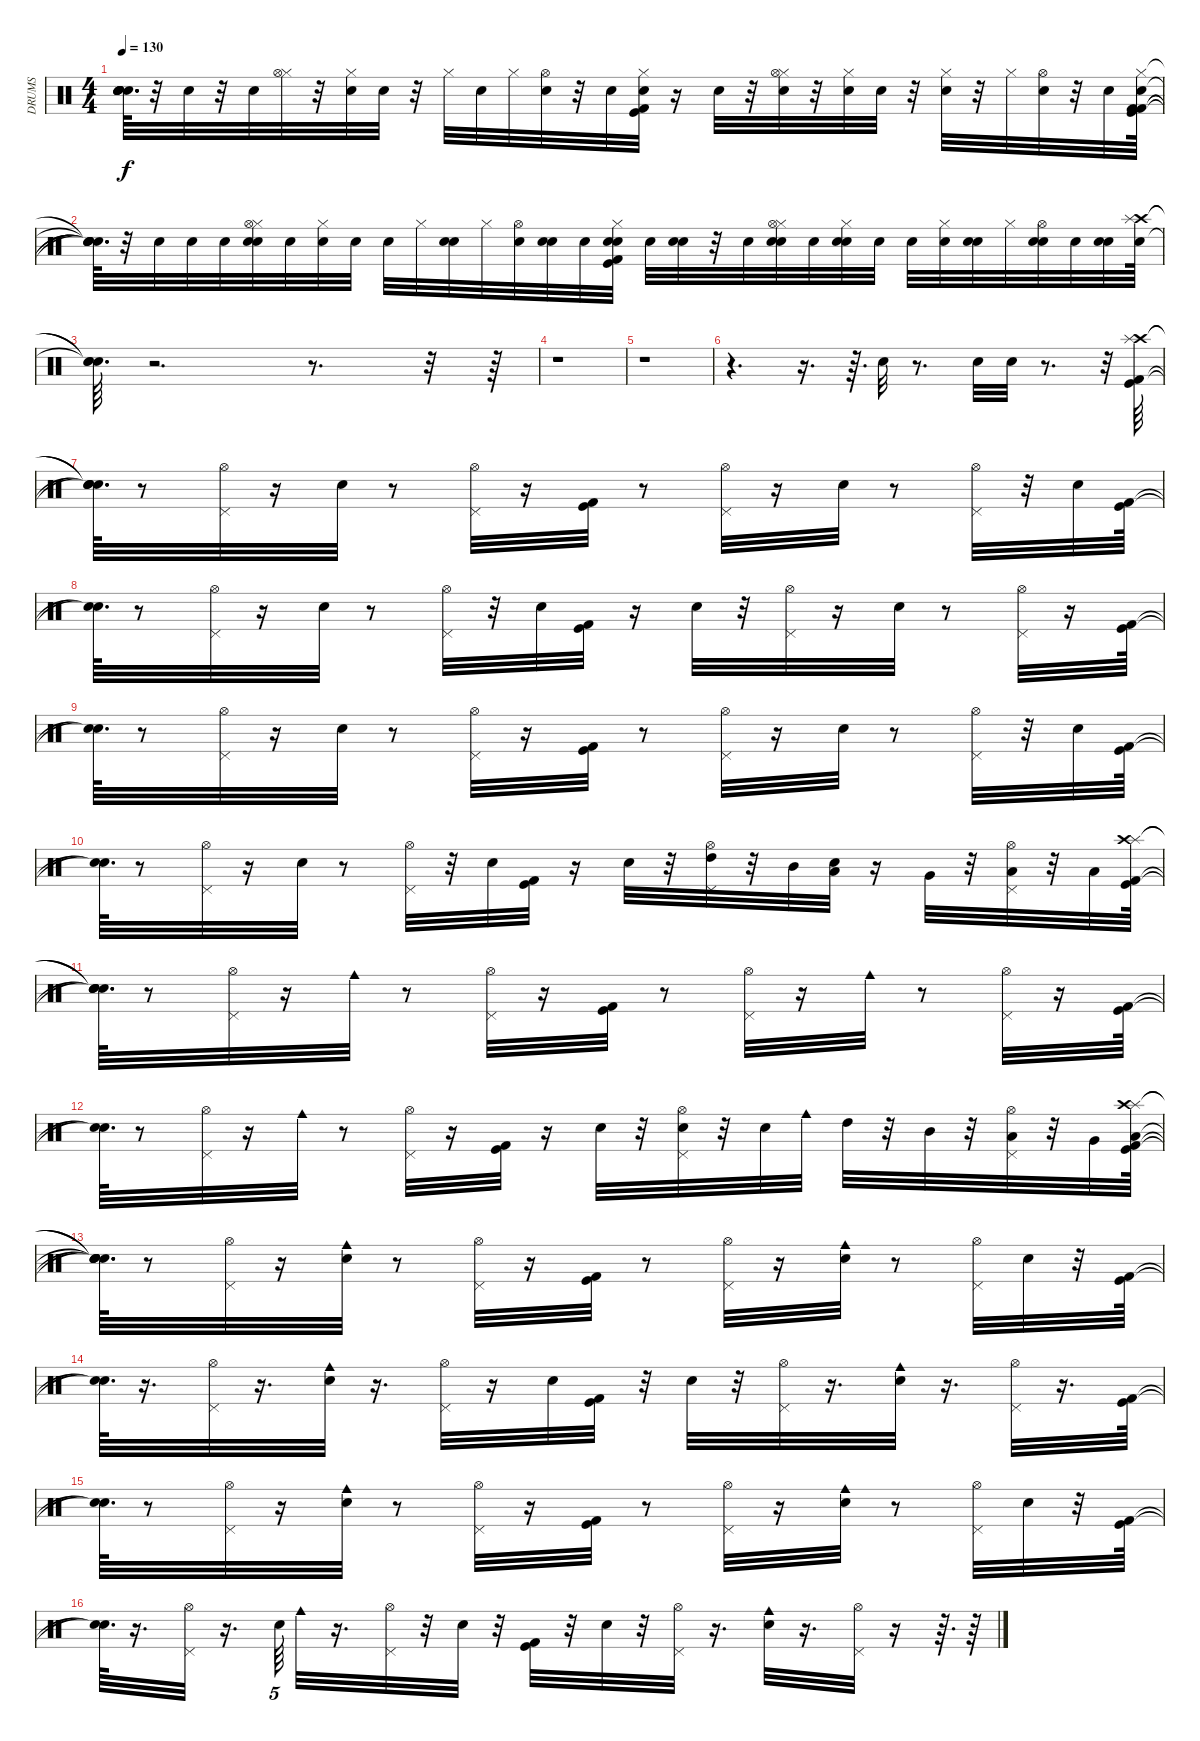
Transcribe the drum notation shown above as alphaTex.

\track ("DRUMS" "DRUMS") {instrument percussion}
\staff {score}
\articulation defaults
\ts (4 4)
\tempo 130
\clef neutral
\ks c
("Snare (hit)"{t} "Snare (hit)"{t} "Snare (hit)"{t} "Snare (hit)"{t} "Snare (hit)"{t} "Snare (hit)"{t}).64{d dy f} r.32 "Snare (hit) 2".32 r.32 "Snare (hit) 2".32 ("Hi-Hat (closed)" "Hi-Hat (open)").32 r.32 ("Snare (hit) 2" "Hi-Hat (closed)").32 "Snare (hit) 2".32 r.32 "Hi-Hat (closed)".32 "Snare (hit) 2".32 "Hi-Hat (closed)".32 ("Hi-Hat (open)" "Snare (hit) 2").32 r.32 "Snare (hit) 2".32 ("Kick (hit) 2" "Kick (hit)" "Hi-Hat (closed)" "Snare (hit) 2").32 r.16 "Snare (hit) 2".32 r.32 ("Hi-Hat (closed)" "Hi-Hat (open)" "Snare (hit) 2").32 r.32 ("Hi-Hat (closed)" "Snare (hit) 2").32 "Snare (hit) 2".32 r.32 ("Hi-Hat (closed)" "Snare (hit) 2").32 r.32 "Hi-Hat (closed)".32 ("Hi-Hat (open)" "Snare (hit) 2").32 r.32 "Snare (hit) 2".32 ("Kick (hit) 2" "Kick (hit)" "Kick (hit) 2" "Hi-Hat (closed)" "Snare (hit) 2").64 |
("Snare (hit)"{t} "Snare (hit)"{t} "Snare (hit)"{t} "Snare (hit)"{t} "Snare (hit)"{t}).64{d} r.32 "Snare (hit) 2".32 "Snare (hit) 2".32 "Snare (hit) 2".32 ("Hi-Hat (closed)" "Hi-Hat (open)" "Snare (hit) 2" "Snare (hit) 2").32 "Snare (hit) 2".32 ("Hi-Hat (closed)" "Snare (hit) 2").32 "Snare (hit) 2".32 "Snare (hit) 2".32 "Hi-Hat (closed)".32 ("Snare (hit) 2" "Snare (hit) 2").32 "Hi-Hat (closed)".32 ("Hi-Hat (open)" "Snare (hit) 2").32 ("Snare (hit) 2" "Snare (hit) 2").32 "Snare (hit) 2".32 ("Kick (hit) 2" "Kick (hit)" "Hi-Hat (closed)" "Electric Snare (hit)" "Snare (hit) 2").32 "Snare (hit) 2".32 ("Electric Snare (hit)" "Snare (hit) 2").32 r.32 "Snare (hit) 2".32 ("Hi-Hat (closed)" "Hi-Hat (open)" "Snare (hit) 2" "Snare (hit) 2").32 "Snare (hit) 2".32 ("Hi-Hat (closed)" "Electric Snare (hit)" "Snare (hit) 2").32 "Snare (hit) 2".32 "Snare (hit) 2".32 ("Hi-Hat (closed)" "Electric Snare (hit)").32 ("Snare (hit) 2" "Snare (hit) 2").32 "Hi-Hat (closed)".32 ("Electric Snare (hit)" "Hi-Hat (open)" "Snare (hit) 2").32 "Snare (hit) 2".32 ("Snare (hit) 2" "Snare (hit) 2").32 ("Crash high (hit)" "Splash (hit)" "Snare (hit) 2").64 |
("Snare (hit)"{t} "Snare (hit)"{t} "Snare (hit)"{t}).64{d} r.2{d} r.8{d} r.32 r.64 |
r.1 |
r.1 |
r.4{d} r.16{d} r.64{d} "Snare (hit) 2".32 r.8{d} "Snare (hit) 2".32 "Snare (hit) 2".32 r.8{d} r.32 ("Crash high (hit)" "Kick (hit)" "Kick (hit) 2" "Splash (hit)").64 |
("Snare (hit)"{t} "Snare (hit)"{t} "Snare (hit)"{t} "Snare (hit)"{t}).64{d} r.8 ("Pedal Hi-Hat (hit)" "Hi-Hat (open)").32 r.16 "Electric Snare (hit)".32 r.8 ("Pedal Hi-Hat (hit)" "Hi-Hat (open)").32 r.16 ("Kick (hit) 2" "Kick (hit)").32 r.8 ("Pedal Hi-Hat (hit)" "Hi-Hat (open)").32 r.16 "Electric Snare (hit)".32 r.8 ("Pedal Hi-Hat (hit)" "Hi-Hat (open)").32 r.32 "Electric Snare (hit)".32 ("Kick (hit)" "Kick (hit) 2").64 |
("Snare (hit)"{t} "Snare (hit)"{t}).64{d} r.8 ("Pedal Hi-Hat (hit)" "Hi-Hat (open)").32 r.16 "Electric Snare (hit)".32 r.8 ("Pedal Hi-Hat (hit)" "Hi-Hat (open)").32 r.32 "Electric Snare (hit)".32 ("Kick (hit) 2" "Kick (hit)").32 r.16 "Electric Snare (hit)".32 r.32 ("Pedal Hi-Hat (hit)" "Hi-Hat (open)").32 r.16 "Electric Snare (hit)".32 r.8 ("Pedal Hi-Hat (hit)" "Hi-Hat (open)").32 r.16 ("Kick (hit)" "Kick (hit) 2").64 |
("Snare (hit)"{t} "Snare (hit)"{t}).64{d} r.8 ("Pedal Hi-Hat (hit)" "Hi-Hat (open)").32 r.16 "Electric Snare (hit)".32 r.8 ("Pedal Hi-Hat (hit)" "Hi-Hat (open)").32 r.16 ("Kick (hit) 2" "Kick (hit)").32 r.8 ("Pedal Hi-Hat (hit)" "Hi-Hat (open)").32 r.16 "Electric Snare (hit)".32 r.8 ("Pedal Hi-Hat (hit)" "Hi-Hat (open)").32 r.32 "Electric Snare (hit)".32 ("Kick (hit)" "Kick (hit) 2").64 |
("Snare (hit)"{t} "Snare (hit)"{t}).64{d} r.8 ("Pedal Hi-Hat (hit)" "Hi-Hat (open)").32 r.16 "Electric Snare (hit)".32 r.8 ("Pedal Hi-Hat (hit)" "Hi-Hat (open)").32 r.32 "Electric Snare (hit)".32 ("Kick (hit) 2" "Kick (hit)").32 r.16 "Electric Snare (hit)".32 r.32 ("Pedal Hi-Hat (hit)" "Hi-Hat (open)" "High Tom (hit)").32 r.32 "Mid Tom (hit)".32 ("Electric Snare (hit)" "Low Tom (hit)").32 r.16 "Very Low Tom (hit)".32 r.32 ("Pedal Hi-Hat (hit)" "Hi-Hat (open)" "Low Floor Tom (hit)").32 r.32 "Low Floor Tom (hit)".32 ("Splash (hit)" "Kick (hit)" "Kick (hit) 2" "Crash high (hit)").64 |
("Snare (hit)"{t} "Snare (hit)"{t} "Snare (hit)"{t} "Snare (hit)"{t}).64{d} r.8 ("Pedal Hi-Hat (hit)" "Hi-Hat (open)").32 r.16 "Cowbell medium (hit)".32 r.8 ("Pedal Hi-Hat (hit)" "Hi-Hat (open)").32 r.16 ("Kick (hit) 2" "Kick (hit)").32 r.8 ("Pedal Hi-Hat (hit)" "Hi-Hat (open)").32 r.16 "Cowbell medium (hit)".32 r.8 ("Pedal Hi-Hat (hit)" "Hi-Hat (open)").32 r.16 ("Kick (hit)" "Kick (hit) 2").64 |
("Snare (hit)"{t} "Snare (hit)"{t}).64{d} r.8 ("Pedal Hi-Hat (hit)" "Hi-Hat (open)").32 r.16 "Cowbell medium (hit)".32 r.8 ("Pedal Hi-Hat (hit)" "Hi-Hat (open)").32 r.16 ("Kick (hit) 2" "Kick (hit)").32 r.16 "Electric Snare (hit)".32 r.32 ("Pedal Hi-Hat (hit)" "Hi-Hat (open)" "Electric Snare (hit)").32 r.32 "Electric Snare (hit)".32 "Cowbell medium (hit)".32 "High Tom (hit)".32 r.32 "Mid Tom (hit)".32 r.32 ("Low Tom (hit)" "Pedal Hi-Hat (hit)" "Hi-Hat (open)").32 r.32 "Very Low Tom (hit)".32 ("Low Floor Tom (hit)" "Kick (hit)" "Kick (hit) 2" "Splash (hit)" "Crash high (hit)").64 |
("Snare (hit)"{t} "Snare (hit)"{t} "Snare (hit)"{t} "Snare (hit)"{t} "Snare (hit)"{t}).64{d} r.8 ("Pedal Hi-Hat (hit)" "Hi-Hat (open)").32 r.16 ("Electric Snare (hit)" "Cowbell medium (hit)").32 r.8 ("Pedal Hi-Hat (hit)" "Hi-Hat (open)").32 r.16 ("Kick (hit) 2" "Kick (hit)").32 r.8 ("Pedal Hi-Hat (hit)" "Hi-Hat (open)").32 r.16 ("Electric Snare (hit)" "Cowbell medium (hit)").32 r.8 ("Pedal Hi-Hat (hit)" "Hi-Hat (open)").32 "Electric Snare (hit)".32 r.32 ("Kick (hit)" "Kick (hit) 2").64 |
("Snare (hit)"{t} "Snare (hit)"{t}).64{d} r.16{d} ("Pedal Hi-Hat (hit)" "Hi-Hat (open)").32 r.16{d} ("Electric Snare (hit)" "Cowbell medium (hit)").32 r.16{d} ("Pedal Hi-Hat (hit)" "Hi-Hat (open)").32 r.16 "Electric Snare (hit)".32 ("Kick (hit) 2" "Kick (hit)").32 r.32 "Electric Snare (hit)".32 r.32 ("Pedal Hi-Hat (hit)" "Hi-Hat (open)").32 r.16{d} ("Electric Snare (hit)" "Cowbell medium (hit)").32 r.16{d} ("Pedal Hi-Hat (hit)" "Hi-Hat (open)").32 r.16{d} ("Kick (hit)" "Kick (hit) 2").64 |
("Snare (hit)"{t} "Snare (hit)"{t}).64{d} r.8 ("Pedal Hi-Hat (hit)" "Hi-Hat (open)").32 r.16 ("Electric Snare (hit)" "Cowbell medium (hit)").32 r.8 ("Pedal Hi-Hat (hit)" "Hi-Hat (open)").32 r.16 ("Kick (hit) 2" "Kick (hit)").32 r.8 ("Pedal Hi-Hat (hit)" "Hi-Hat (open)").32 r.16 ("Electric Snare (hit)" "Cowbell medium (hit)").32 r.8 ("Pedal Hi-Hat (hit)" "Hi-Hat (open)").32 "Electric Snare (hit)".32 r.32 ("Kick (hit)" "Kick (hit) 2").64 |
("Snare (hit)"{t} "Snare (hit)"{t}).64{d} r.16{d} ("Pedal Hi-Hat (hit)" "Hi-Hat (open)").32 r.16{d} "Electric Snare (hit)".64{tu (5 4)} "Cowbell medium (hit)".32 r.16{d} ("Pedal Hi-Hat (hit)" "Hi-Hat (open)").32 r.32 "Electric Snare (hit)".32 r.32 ("Kick (hit) 2" "Kick (hit)").32 r.32 "Electric Snare (hit)".32 r.32 ("Pedal Hi-Hat (hit)" "Hi-Hat (open)").32 r.16{d} ("Electric Snare (hit)" "Cowbell medium (hit)").32 r.16{d} ("Pedal Hi-Hat (hit)" "Hi-Hat (open)").32 r.16 r.64{d} r.64
